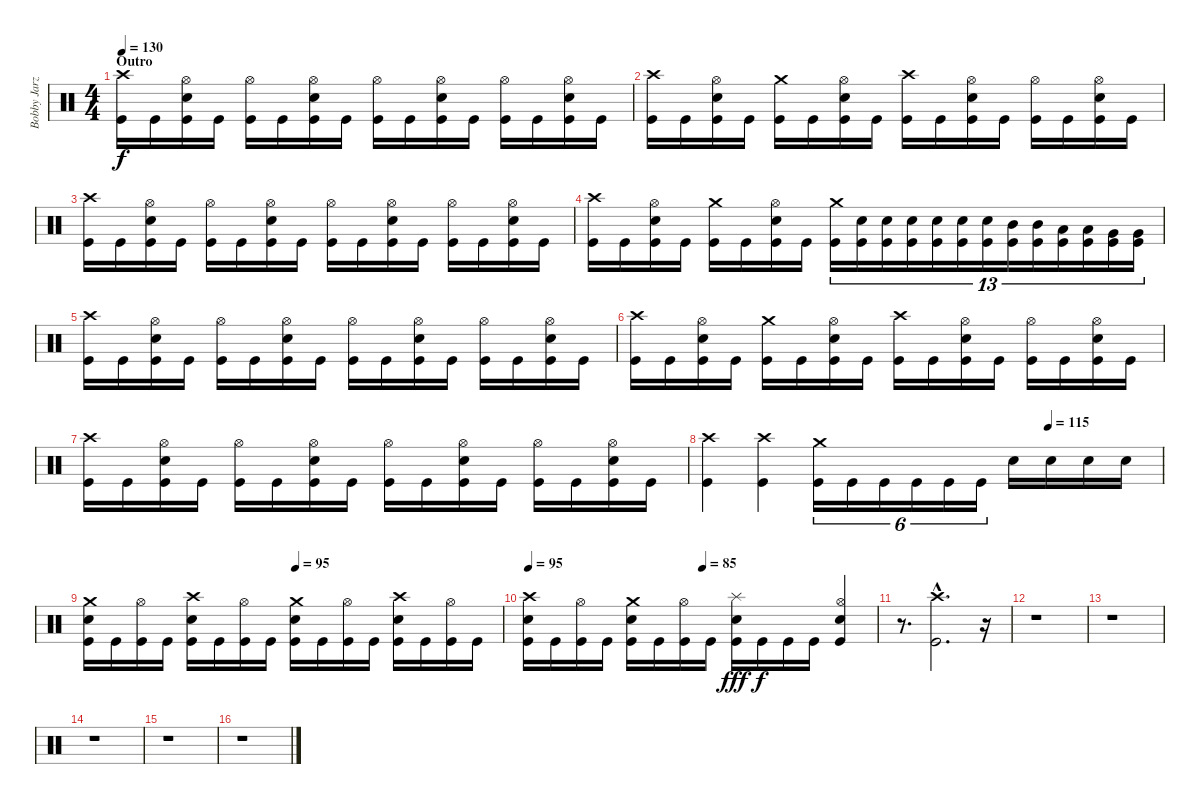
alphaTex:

\track ("Bobby Jarzombek" "Bobby Jarz") {instrument percussion}
\staff {score}
\articulation defaults
\ts (4 4)
\section ("" "Outro")
\tempo 130
\clef neutral
\ks c
("Crash high (hit)" "Kick (hit)").16{dy f} "Kick (hit)".16 ("Hi-Hat (open)" "Electric Snare (hit)" "Kick (hit)").16 "Kick (hit)".16 ("Hi-Hat (open)" "Kick (hit)").16 "Kick (hit)".16 ("Hi-Hat (open)" "Electric Snare (hit)" "Kick (hit)").16 "Kick (hit)".16 ("Hi-Hat (open)" "Kick (hit)").16 "Kick (hit)".16 ("Hi-Hat (open)" "Electric Snare (hit)" "Kick (hit)").16 "Kick (hit)".16 ("Hi-Hat (open)" "Kick (hit)").16 "Kick (hit)".16 ("Hi-Hat (open)" "Electric Snare (hit)" "Kick (hit)").16 "Kick (hit)".16 |
("Crash high (hit)" "Kick (hit)").16 "Kick (hit)".16 ("Hi-Hat (open)" "Electric Snare (hit)" "Kick (hit)").16 "Kick (hit)".16 ("Crash medium (hit)" "Kick (hit)").16 "Kick (hit)".16 ("Hi-Hat (open)" "Electric Snare (hit)" "Kick (hit)").16 "Kick (hit)".16 ("Crash high (hit)" "Kick (hit)").16 "Kick (hit)".16 ("Hi-Hat (open)" "Electric Snare (hit)" "Kick (hit)").16 "Kick (hit)".16 ("Hi-Hat (open)" "Kick (hit)").16 "Kick (hit)".16 ("Hi-Hat (open)" "Electric Snare (hit)" "Kick (hit)").16 "Kick (hit)".16 |
("Crash high (hit)" "Kick (hit)").16 "Kick (hit)".16 ("Hi-Hat (open)" "Electric Snare (hit)" "Kick (hit)").16 "Kick (hit)".16 ("Hi-Hat (open)" "Kick (hit)").16 "Kick (hit)".16 ("Hi-Hat (open)" "Electric Snare (hit)" "Kick (hit)").16 "Kick (hit)".16 ("Hi-Hat (open)" "Kick (hit)").16 "Kick (hit)".16 ("Hi-Hat (open)" "Electric Snare (hit)" "Kick (hit)").16 "Kick (hit)".16 ("Hi-Hat (open)" "Kick (hit)").16 "Kick (hit)".16 ("Hi-Hat (open)" "Electric Snare (hit)" "Kick (hit)").16 "Kick (hit)".16 |
("Crash high (hit)" "Kick (hit)").16 "Kick (hit)".16 ("Hi-Hat (open)" "Electric Snare (hit)" "Kick (hit)").16 "Kick (hit)".16 ("Crash medium (hit)" "Kick (hit)").16 "Kick (hit)".16 ("Hi-Hat (open)" "Electric Snare (hit)" "Kick (hit)").16 "Kick (hit)".16 ("Crash medium (hit)" "Kick (hit)").16{tu (13 8)} ("Electric Snare (hit)" "Kick (hit)").16{tu (13 8)} ("Electric Snare (hit)" "Kick (hit)").16{tu (13 8)} ("Electric Snare (hit)" "Kick (hit)").16{tu (13 8)} ("Electric Snare (hit)" "Kick (hit)").16{tu (13 8)} ("Electric Snare (hit)" "Kick (hit)").16{tu (13 8)} ("Electric Snare (hit)" "Kick (hit)").16{tu (13 8)} ("Mid Tom (hit)" "Kick (hit)").16{tu (13 8)} ("Mid Tom (hit)" "Kick (hit)").16{tu (13 8)} ("Low Tom (hit)" "Kick (hit)").16{tu (13 8)} ("Low Tom (hit)" "Kick (hit)").16{tu (13 8)} ("Very Low Tom (hit)" "Kick (hit)").16{tu (13 8)} ("Very Low Tom (hit)" "Kick (hit)").16{tu (13 8)} |
("Crash high (hit)" "Kick (hit)").16 "Kick (hit)".16 ("Hi-Hat (open)" "Electric Snare (hit)" "Kick (hit)").16 "Kick (hit)".16 ("Hi-Hat (open)" "Kick (hit)").16 "Kick (hit)".16 ("Hi-Hat (open)" "Electric Snare (hit)" "Kick (hit)").16 "Kick (hit)".16 ("Hi-Hat (open)" "Kick (hit)").16 "Kick (hit)".16 ("Hi-Hat (open)" "Electric Snare (hit)" "Kick (hit)").16 "Kick (hit)".16 ("Hi-Hat (open)" "Kick (hit)").16 "Kick (hit)".16 ("Hi-Hat (open)" "Electric Snare (hit)" "Kick (hit)").16 "Kick (hit)".16 |
("Crash high (hit)" "Kick (hit)").16 "Kick (hit)".16 ("Hi-Hat (open)" "Electric Snare (hit)" "Kick (hit)").16 "Kick (hit)".16 ("Crash medium (hit)" "Kick (hit)").16 "Kick (hit)".16 ("Hi-Hat (open)" "Electric Snare (hit)" "Kick (hit)").16 "Kick (hit)".16 ("Crash high (hit)" "Kick (hit)").16 "Kick (hit)".16 ("Hi-Hat (open)" "Electric Snare (hit)" "Kick (hit)").16 "Kick (hit)".16 ("Hi-Hat (open)" "Kick (hit)").16 "Kick (hit)".16 ("Hi-Hat (open)" "Electric Snare (hit)" "Kick (hit)").16 "Kick (hit)".16 |
("Crash high (hit)" "Kick (hit)").16 "Kick (hit)".16 ("Hi-Hat (open)" "Electric Snare (hit)" "Kick (hit)").16 "Kick (hit)".16 ("Hi-Hat (open)" "Kick (hit)").16 "Kick (hit)".16 ("Hi-Hat (open)" "Electric Snare (hit)" "Kick (hit)").16 "Kick (hit)".16 ("Hi-Hat (open)" "Kick (hit)").16 "Kick (hit)".16 ("Hi-Hat (open)" "Electric Snare (hit)" "Kick (hit)").16 "Kick (hit)".16 ("Hi-Hat (open)" "Kick (hit)").16 "Kick (hit)".16 ("Hi-Hat (open)" "Electric Snare (hit)" "Kick (hit)").16 "Kick (hit)".16 |
\tempo (115 0.75)
("Crash high (hit)" "Kick (hit)").4 ("Crash high (hit)" "Kick (hit)").4 ("Crash medium (hit)" "Kick (hit)").16{tu (6 4)} "Kick (hit)".16{tu (6 4)} "Kick (hit)".16{tu (6 4)} "Kick (hit)".16{tu (6 4)} "Kick (hit)".16{tu (6 4)} "Kick (hit)".16{tu (6 4)} "Electric Snare (hit)".16 "Electric Snare (hit)".16 "Electric Snare (hit)".16 "Electric Snare (hit)".16 |
\tempo (95 0.5)
("Crash medium (hit)" "Electric Snare (hit)" "Kick (hit)").16 "Kick (hit)".16 ("Hi-Hat (open)" "Kick (hit)").16 "Kick (hit)".16 ("Crash high (hit)" "Electric Snare (hit)" "Kick (hit)").16 "Kick (hit)".16 ("Hi-Hat (open)" "Kick (hit)").16 "Kick (hit)".16 ("Crash medium (hit)" "Electric Snare (hit)" "Kick (hit)").16 "Kick (hit)".16 ("Hi-Hat (open)" "Kick (hit)").16 "Kick (hit)".16 ("Crash high (hit)" "Electric Snare (hit)" "Kick (hit)").16 "Kick (hit)".16 ("Hi-Hat (open)" "Kick (hit)").16 "Kick (hit)".16 |
\tempo 95
\tempo (85 0.5)
("Crash high (hit)" "Electric Snare (hit)" "Kick (hit)").16 "Kick (hit)".16 ("Hi-Hat (open)" "Kick (hit)").16 "Kick (hit)".16 ("Crash medium (hit)" "Electric Snare (hit)" "Kick (hit)").16 "Kick (hit)".16 ("Hi-Hat (open)" "Kick (hit)").16 "Kick (hit)".16 ("Splash (hit)" "Electric Snare (hit)" "Kick (hit)").16{dy fff} "Kick (hit)".16{dy f} "Kick (hit)".16 "Kick (hit)".16 ("Hi-Hat (open)" "Electric Snare (hit)" "Kick (hit)").4 |
r.8{d} ("Crash high (hit)"{hac} "Kick (hit)"{hac}).2{d} r.16 |
r.1 |
r.1 |
r.1 |
r.1 |
r.1
